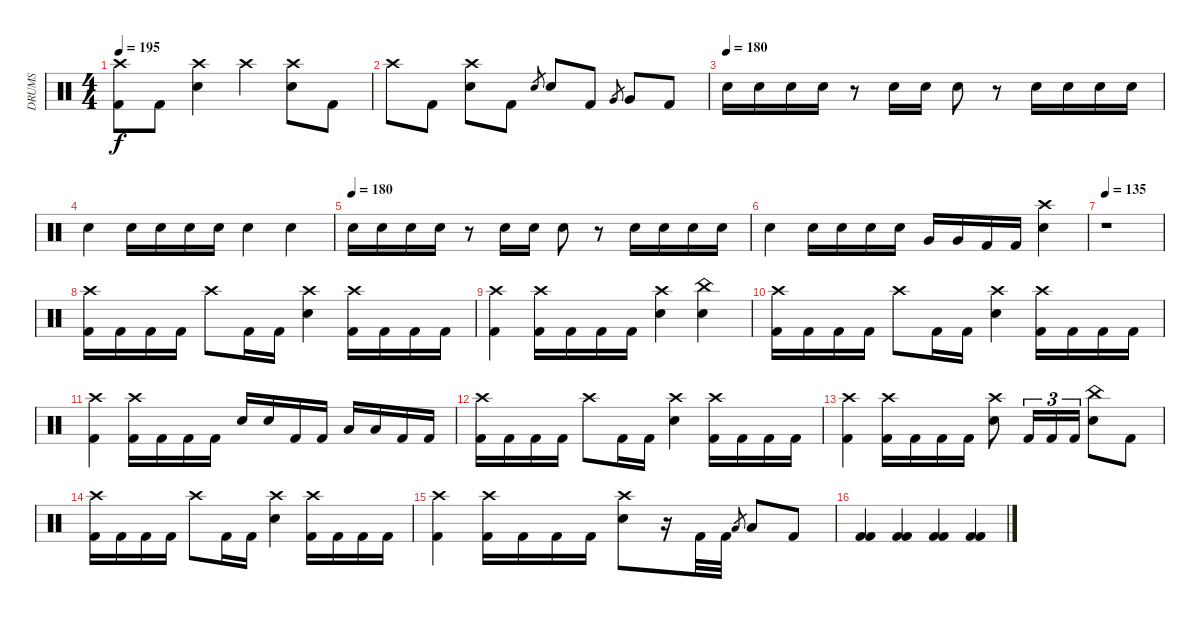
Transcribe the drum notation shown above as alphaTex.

\track ("DRUMS" "DRUMS") {instrument percussion}
\staff {score}
\articulation defaults
\ts (4 4)
\tempo 195
\clef neutral
\ks c
("Crash high (hit)" "Kick (hit) 2").8{dy f} "Kick (hit) 2".8 ("Crash high (hit)" "Electric Snare (hit)").4 "Crash high (hit)".4 ("Crash high (hit)" "Electric Snare (hit)").8 "Kick (hit) 2".8 |
"Crash high (hit)".8 "Kick (hit) 2".8 ("Crash high (hit)" "Electric Snare (hit)").8 "Kick (hit) 2".8 "Electric Snare (hit)".8{gr} "Electric Snare (hit)".8 "Kick (hit) 2".8 "Very Low Tom (hit)".8{gr} "Very Low Tom (hit)".8 "Kick (hit) 2".8 |
\tempo (180)
"Electric Snare (hit)".16 "Electric Snare (hit)".16 "Electric Snare (hit)".16 "Electric Snare (hit)".16 r.8 "Electric Snare (hit)".16 "Electric Snare (hit)".16 "Electric Snare (hit)".8 r.8 "Electric Snare (hit)".16 "Electric Snare (hit)".16 "Electric Snare (hit)".16 "Electric Snare (hit)".16 |
"Electric Snare (hit)".4 "Electric Snare (hit)".16 "Electric Snare (hit)".16 "Electric Snare (hit)".16 "Electric Snare (hit)".16 "Electric Snare (hit)".4 "Electric Snare (hit)".4 |
\tempo (180)
"Electric Snare (hit)".16 "Electric Snare (hit)".16 "Electric Snare (hit)".16 "Electric Snare (hit)".16 r.8 "Electric Snare (hit)".16 "Electric Snare (hit)".16 "Electric Snare (hit)".8 r.8 "Electric Snare (hit)".16 "Electric Snare (hit)".16 "Electric Snare (hit)".16 "Electric Snare (hit)".16 |
"Electric Snare (hit)".4 "Electric Snare (hit)".16 "Electric Snare (hit)".16 "Electric Snare (hit)".16 "Electric Snare (hit)".16 "Very Low Tom (hit)".16 "Very Low Tom (hit)".16 "Kick (hit) 2".16 "Kick (hit) 2".16 ("Crash high (hit)" "Electric Snare (hit)").4 |
\tempo 135
r.1 |
("Crash high (hit)" "Kick (hit) 2").16 "Kick (hit) 2".16 "Kick (hit) 2".16 "Kick (hit) 2".16 "Crash high (hit)".8 "Kick (hit) 2".16 "Kick (hit) 2".16 ("Crash high (hit)" "Electric Snare (hit)").4 ("Crash high (hit)" "Kick (hit) 2").16 "Kick (hit) 2".16 "Kick (hit) 2".16 "Kick (hit) 2".16 |
("Crash high (hit)" "Kick (hit) 2").4 ("Crash high (hit)" "Kick (hit) 2").16 "Kick (hit) 2".16 "Kick (hit) 2".16 "Kick (hit) 2".16 ("Crash high (hit)" "Electric Snare (hit)").4 ("China (hit)" "Electric Snare (hit)").4 |
("Crash high (hit)" "Kick (hit) 2").16 "Kick (hit) 2".16 "Kick (hit) 2".16 "Kick (hit) 2".16 "Crash high (hit)".8 "Kick (hit) 2".16 "Kick (hit) 2".16 ("Crash high (hit)" "Electric Snare (hit)").4 ("Crash high (hit)" "Kick (hit) 2").16 "Kick (hit) 2".16 "Kick (hit) 2".16 "Kick (hit) 2".16 |
("Crash high (hit)" "Kick (hit) 2").4 ("Crash high (hit)" "Kick (hit) 2").16 "Kick (hit) 2".16 "Kick (hit) 2".16 "Kick (hit) 2".16 "Electric Snare (hit)".16 "Electric Snare (hit)".16 "Kick (hit) 2".16 "Kick (hit) 2".16 "Low Tom (hit)".16 "Low Tom (hit)".16 "Kick (hit) 2".16 "Kick (hit) 2".16 |
("Crash high (hit)" "Kick (hit) 2").16 "Kick (hit) 2".16 "Kick (hit) 2".16 "Kick (hit) 2".16 "Crash high (hit)".8 "Kick (hit) 2".16 "Kick (hit) 2".16 ("Crash high (hit)" "Electric Snare (hit)").4 ("Crash high (hit)" "Kick (hit) 2").16 "Kick (hit) 2".16 "Kick (hit) 2".16 "Kick (hit) 2".16 |
("Crash high (hit)" "Kick (hit) 2").4 ("Crash high (hit)" "Kick (hit) 2").16 "Kick (hit) 2".16 "Kick (hit) 2".16 "Kick (hit) 2".16 ("Crash high (hit)" "Electric Snare (hit)").8 "Kick (hit) 2".16{tu (3 2)} "Kick (hit) 2".16{tu (3 2)} "Kick (hit) 2".16{tu (3 2)} ("China (hit)" "Electric Snare (hit)").8 "Kick (hit) 2".8 |
("Crash high (hit)" "Kick (hit) 2").16 "Kick (hit) 2".16 "Kick (hit) 2".16 "Kick (hit) 2".16 "Crash high (hit)".8 "Kick (hit) 2".16 "Kick (hit) 2".16 ("Crash high (hit)" "Electric Snare (hit)").4 ("Crash high (hit)" "Kick (hit) 2").16 "Kick (hit) 2".16 "Kick (hit) 2".16 "Kick (hit) 2".16 |
("Crash high (hit)" "Kick (hit) 2").4 ("Crash high (hit)" "Kick (hit) 2").16 "Kick (hit) 2".16 "Kick (hit) 2".16 "Kick (hit) 2".16 ("Crash high (hit)" "Electric Snare (hit)").8 r.16 "Kick (hit) 2".32 "Kick (hit) 2".32 "Low Tom (hit)".8{gr} "Low Tom (hit)".8 "Kick (hit) 2".8 |
("Kick (hit) 2" "Kick (hit) 2").4 ("Kick (hit) 2" "Kick (hit) 2").4 ("Kick (hit) 2" "Kick (hit) 2").4 ("Kick (hit) 2" "Kick (hit) 2").4
